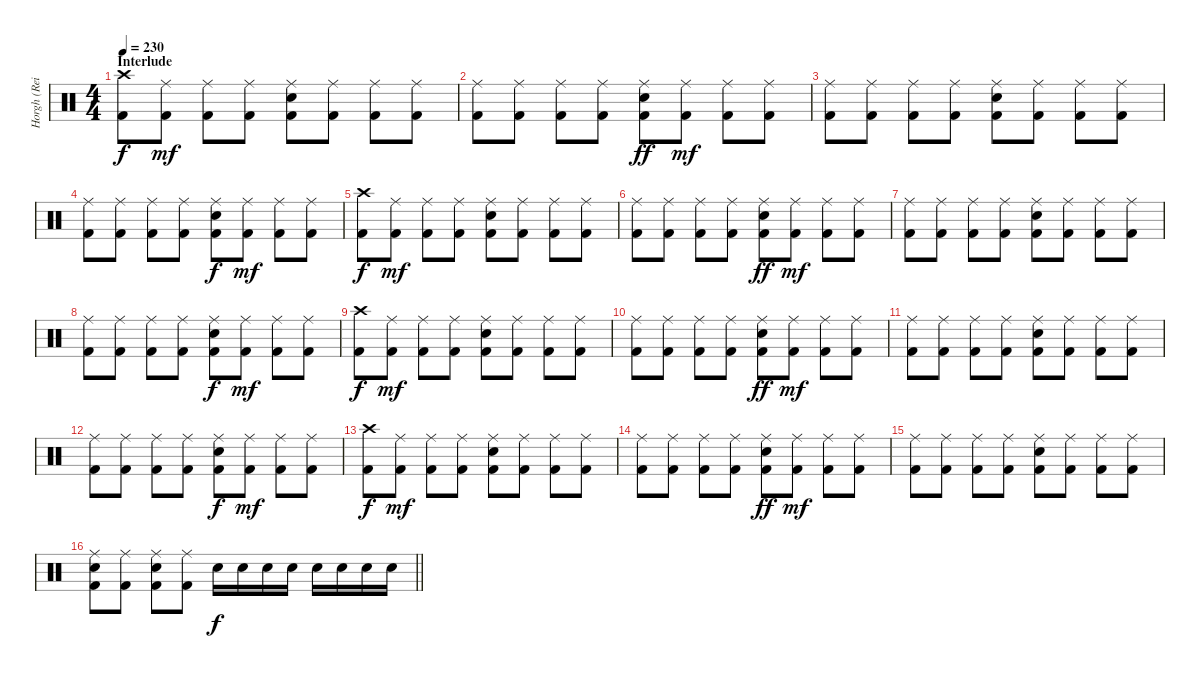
\track ("Horgh (Reidar Horghagen)" "Horgh (Rei") {instrument percussion}
\staff {score}
\articulation defaults
\ts (4 4)
\section ("" "Interlude")
\tempo 230
\clef neutral
\ks c
("Crash high (hit)" "Kick (hit) 2").8{dy f} ("Ride (middle)" "Kick (hit) 2").8{dy mf} ("Ride (middle)" "Kick (hit) 2").8 ("Ride (middle)" "Kick (hit) 2").8 ("Ride (middle)" "Snare (hit) 2" "Kick (hit) 2").8 ("Ride (middle)" "Kick (hit) 2").8 ("Ride (middle)" "Kick (hit) 2").8 ("Ride (middle)" "Kick (hit) 2").8 |
("Ride (middle)" "Kick (hit) 2").8 ("Ride (middle)" "Kick (hit) 2").8 ("Ride (middle)" "Kick (hit) 2").8 ("Ride (middle)" "Kick (hit) 2").8 ("Ride (middle)" "Snare (hit) 2" "Kick (hit) 2").8{dy ff} ("Ride (middle)" "Kick (hit) 2").8{dy mf} ("Ride (middle)" "Kick (hit) 2").8 ("Ride (middle)" "Kick (hit) 2").8 |
("Ride (middle)" "Kick (hit) 2").8 ("Ride (middle)" "Kick (hit) 2").8 ("Ride (middle)" "Kick (hit) 2").8 ("Ride (middle)" "Kick (hit) 2").8 ("Ride (middle)" "Snare (hit) 2" "Kick (hit) 2").8 ("Ride (middle)" "Kick (hit) 2").8 ("Ride (middle)" "Kick (hit) 2").8 ("Ride (middle)" "Kick (hit) 2").8 |
("Ride (middle)" "Kick (hit) 2").8 ("Ride (middle)" "Kick (hit) 2").8 ("Ride (middle)" "Kick (hit) 2").8 ("Ride (middle)" "Kick (hit) 2").8 ("Ride (middle)" "Snare (hit) 2" "Kick (hit) 2").8{dy f} ("Ride (middle)" "Kick (hit) 2").8{dy mf} ("Ride (middle)" "Kick (hit) 2").8 ("Ride (middle)" "Kick (hit) 2").8 |
("Crash high (hit)" "Kick (hit) 2").8{dy f} ("Ride (middle)" "Kick (hit) 2").8{dy mf} ("Ride (middle)" "Kick (hit) 2").8 ("Ride (middle)" "Kick (hit) 2").8 ("Ride (middle)" "Snare (hit) 2" "Kick (hit) 2").8 ("Ride (middle)" "Kick (hit) 2").8 ("Ride (middle)" "Kick (hit) 2").8 ("Ride (middle)" "Kick (hit) 2").8 |
("Ride (middle)" "Kick (hit) 2").8 ("Ride (middle)" "Kick (hit) 2").8 ("Ride (middle)" "Kick (hit) 2").8 ("Ride (middle)" "Kick (hit) 2").8 ("Ride (middle)" "Snare (hit) 2" "Kick (hit) 2").8{dy ff} ("Ride (middle)" "Kick (hit) 2").8{dy mf} ("Ride (middle)" "Kick (hit) 2").8 ("Ride (middle)" "Kick (hit) 2").8 |
("Ride (middle)" "Kick (hit) 2").8 ("Ride (middle)" "Kick (hit) 2").8 ("Ride (middle)" "Kick (hit) 2").8 ("Ride (middle)" "Kick (hit) 2").8 ("Ride (middle)" "Snare (hit) 2" "Kick (hit) 2").8 ("Ride (middle)" "Kick (hit) 2").8 ("Ride (middle)" "Kick (hit) 2").8 ("Ride (middle)" "Kick (hit) 2").8 |
("Ride (middle)" "Kick (hit) 2").8 ("Ride (middle)" "Kick (hit) 2").8 ("Ride (middle)" "Kick (hit) 2").8 ("Ride (middle)" "Kick (hit) 2").8 ("Ride (middle)" "Snare (hit) 2" "Kick (hit) 2").8{dy f} ("Ride (middle)" "Kick (hit) 2").8{dy mf} ("Ride (middle)" "Kick (hit) 2").8 ("Ride (middle)" "Kick (hit) 2").8 |
("Crash high (hit)" "Kick (hit) 2").8{dy f} ("Ride (middle)" "Kick (hit) 2").8{dy mf} ("Ride (middle)" "Kick (hit) 2").8 ("Ride (middle)" "Kick (hit) 2").8 ("Ride (middle)" "Snare (hit) 2" "Kick (hit) 2").8 ("Ride (middle)" "Kick (hit) 2").8 ("Ride (middle)" "Kick (hit) 2").8 ("Ride (middle)" "Kick (hit) 2").8 |
("Ride (middle)" "Kick (hit) 2").8 ("Ride (middle)" "Kick (hit) 2").8 ("Ride (middle)" "Kick (hit) 2").8 ("Ride (middle)" "Kick (hit) 2").8 ("Ride (middle)" "Snare (hit) 2" "Kick (hit) 2").8{dy ff} ("Ride (middle)" "Kick (hit) 2").8{dy mf} ("Ride (middle)" "Kick (hit) 2").8 ("Ride (middle)" "Kick (hit) 2").8 |
("Ride (middle)" "Kick (hit) 2").8 ("Ride (middle)" "Kick (hit) 2").8 ("Ride (middle)" "Kick (hit) 2").8 ("Ride (middle)" "Kick (hit) 2").8 ("Ride (middle)" "Snare (hit) 2" "Kick (hit) 2").8 ("Ride (middle)" "Kick (hit) 2").8 ("Ride (middle)" "Kick (hit) 2").8 ("Ride (middle)" "Kick (hit) 2").8 |
("Ride (middle)" "Kick (hit) 2").8 ("Ride (middle)" "Kick (hit) 2").8 ("Ride (middle)" "Kick (hit) 2").8 ("Ride (middle)" "Kick (hit) 2").8 ("Ride (middle)" "Snare (hit) 2" "Kick (hit) 2").8{dy f} ("Ride (middle)" "Kick (hit) 2").8{dy mf} ("Ride (middle)" "Kick (hit) 2").8 ("Ride (middle)" "Kick (hit) 2").8 |
("Crash high (hit)" "Kick (hit) 2").8{dy f} ("Ride (middle)" "Kick (hit) 2").8{dy mf} ("Ride (middle)" "Kick (hit) 2").8 ("Ride (middle)" "Kick (hit) 2").8 ("Ride (middle)" "Snare (hit) 2" "Kick (hit) 2").8 ("Ride (middle)" "Kick (hit) 2").8 ("Ride (middle)" "Kick (hit) 2").8 ("Ride (middle)" "Kick (hit) 2").8 |
("Ride (middle)" "Kick (hit) 2").8 ("Ride (middle)" "Kick (hit) 2").8 ("Ride (middle)" "Kick (hit) 2").8 ("Ride (middle)" "Kick (hit) 2").8 ("Ride (middle)" "Snare (hit) 2" "Kick (hit) 2").8{dy ff} ("Ride (middle)" "Kick (hit) 2").8{dy mf} ("Ride (middle)" "Kick (hit) 2").8 ("Ride (middle)" "Kick (hit) 2").8 |
("Ride (middle)" "Kick (hit) 2").8 ("Ride (middle)" "Kick (hit) 2").8 ("Ride (middle)" "Kick (hit) 2").8 ("Ride (middle)" "Kick (hit) 2").8 ("Ride (middle)" "Snare (hit) 2" "Kick (hit) 2").8 ("Ride (middle)" "Kick (hit) 2").8 ("Ride (middle)" "Kick (hit) 2").8 ("Ride (middle)" "Kick (hit) 2").8 |
\barLineRight lightlight
("Ride (middle)" "Snare (hit) 2" "Kick (hit) 2").8 ("Ride (middle)" "Kick (hit) 2").8 ("Ride (middle)" "Snare (hit) 2" "Kick (hit) 2").8 ("Ride (middle)" "Kick (hit) 2").8 "Snare (hit) 2".16{dy f} "Snare (hit) 2".16 "Snare (hit) 2".16 "Snare (hit) 2".16 "Snare (hit) 2".16 "Snare (hit) 2".16 "Snare (hit) 2".16 "Snare (hit) 2".16
